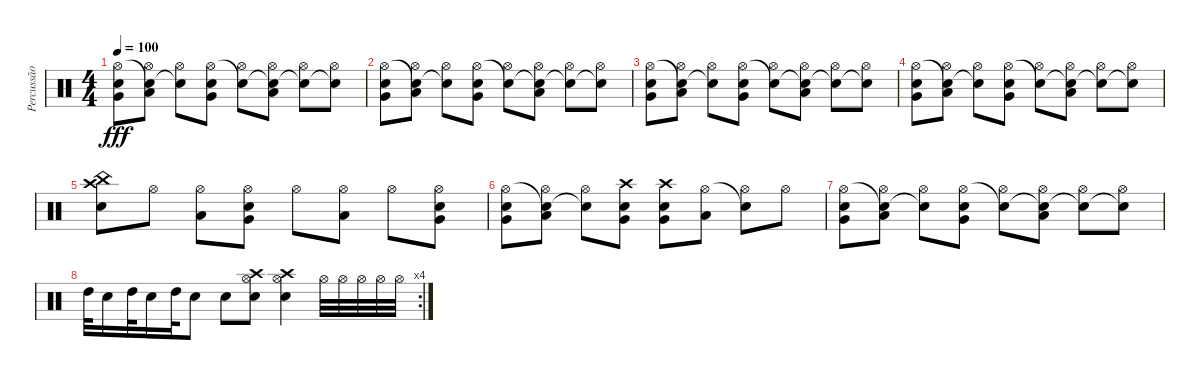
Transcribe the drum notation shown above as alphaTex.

\track ("Percussão" "Percussão") {instrument percussion}
\staff {score}
\articulation defaults
\ts (4 4)
\tempo 100
\clef neutral
\ks c
("Hi-Hat (open)" "Very Low Tom (hit)" "Snare (hit) 2").8{dy fff} ("Snare (hit)"{t} "Hi-Hat (open)" "Low Tom (hit)").8 ("Snare (hit)"{t} "Hi-Hat (open)").8 ("Hi-Hat (open)" "Very Low Tom (hit)" "Snare (hit) 2").8 ("Snare (hit)"{t} "Hi-Hat (open)").8 ("Snare (hit)"{t} "Hi-Hat (open)" "Low Tom (hit)").8 ("Snare (hit)"{t} "Hi-Hat (open)").8 ("Snare (hit)"{t} "Hi-Hat (open)").8 |
("Hi-Hat (open)" "Very Low Tom (hit)" "Snare (hit) 2").8 ("Snare (hit)"{t} "Hi-Hat (open)" "Low Tom (hit)").8 ("Snare (hit)"{t} "Hi-Hat (open)").8 ("Hi-Hat (open)" "Very Low Tom (hit)" "Snare (hit) 2").8 ("Snare (hit)"{t} "Hi-Hat (open)").8 ("Snare (hit)"{t} "Hi-Hat (open)" "Low Tom (hit)").8 ("Snare (hit)"{t} "Hi-Hat (open)").8 ("Snare (hit)"{t} "Hi-Hat (open)").8 |
("Hi-Hat (open)" "Very Low Tom (hit)" "Snare (hit) 2").8 ("Snare (hit)"{t} "Hi-Hat (open)" "Low Tom (hit)").8 ("Snare (hit)"{t} "Hi-Hat (open)").8 ("Hi-Hat (open)" "Very Low Tom (hit)" "Snare (hit) 2").8 ("Snare (hit)"{t} "Hi-Hat (open)").8 ("Snare (hit)"{t} "Hi-Hat (open)" "Low Tom (hit)").8 ("Snare (hit)"{t} "Hi-Hat (open)").8 ("Snare (hit)"{t} "Hi-Hat (open)").8 |
("Hi-Hat (open)" "Very Low Tom (hit)" "Snare (hit) 2").8 ("Snare (hit)"{t} "Hi-Hat (open)" "Low Tom (hit)").8 ("Snare (hit)"{t} "Hi-Hat (open)").8 ("Hi-Hat (open)" "Very Low Tom (hit)" "Snare (hit) 2").8 ("Snare (hit)"{t} "Hi-Hat (open)").8 ("Snare (hit)"{t} "Hi-Hat (open)" "Low Tom (hit)").8 ("Snare (hit)"{t} "Hi-Hat (open)").8 ("Snare (hit)"{t} "Hi-Hat (open)").8 |
("Crash high (hit)" "China (hit)" "Snare (hit) 2").8 "Hi-Hat (open)".8 ("Hi-Hat (open)" "Low Tom (hit)").8 ("Hi-Hat (open)" "Very Low Tom (hit)" "Snare (hit) 2").8 "Hi-Hat (open)".8 ("Hi-Hat (open)" "Low Tom (hit)").8 "Hi-Hat (open)".8 ("Hi-Hat (open)" "Very Low Tom (hit)" "Snare (hit) 2").8 |
("Hi-Hat (open)" "Very Low Tom (hit)" "Snare (hit) 2").8 ("Snare (hit)"{t} "Hi-Hat (open)" "Low Tom (hit)").8 ("Snare (hit)"{t} "Hi-Hat (open)").8 ("Crash high (hit)" "Very Low Tom (hit)" "Snare (hit) 2").8 ("Crash high (hit)" "Very Low Tom (hit)" "Snare (hit) 2").8 ("Hi-Hat (open)" "Low Tom (hit)").8 ("Snare (hit)"{t} "Hi-Hat (open)").8 "Hi-Hat (open)".8 |
("Hi-Hat (open)" "Very Low Tom (hit)" "Snare (hit) 2").8 ("Snare (hit)"{t} "Hi-Hat (open)" "Low Tom (hit)").8 ("Snare (hit)"{t} "Hi-Hat (open)").8 ("Hi-Hat (open)" "Very Low Tom (hit)" "Snare (hit) 2").8 ("Snare (hit)"{t} "Hi-Hat (open)").8 ("Snare (hit)"{t} "Hi-Hat (open)" "Low Tom (hit)").8 ("Snare (hit)"{t} "Hi-Hat (open)").8 ("Snare (hit)"{t} "Hi-Hat (open)").8 |
\rc 4 "High Tom (hit)".32 "Snare (hit) 2".16 "High Tom (hit)".32 "Snare (hit) 2".16 "High Tom (hit)".32 "Snare (hit) 2".8 "Snare (hit) 2".8
("Crash high (hit)" "Snare (hit) 2" "Hi-Hat (open)").8 ("Crash high (hit)" "Snare (hit) 2" "Hi-Hat (open)").4 "Hi-Hat (open)".32 "Hi-Hat (open)".32 "Hi-Hat (open)".32 "Hi-Hat (open)".32 "Hi-Hat (open)".32
